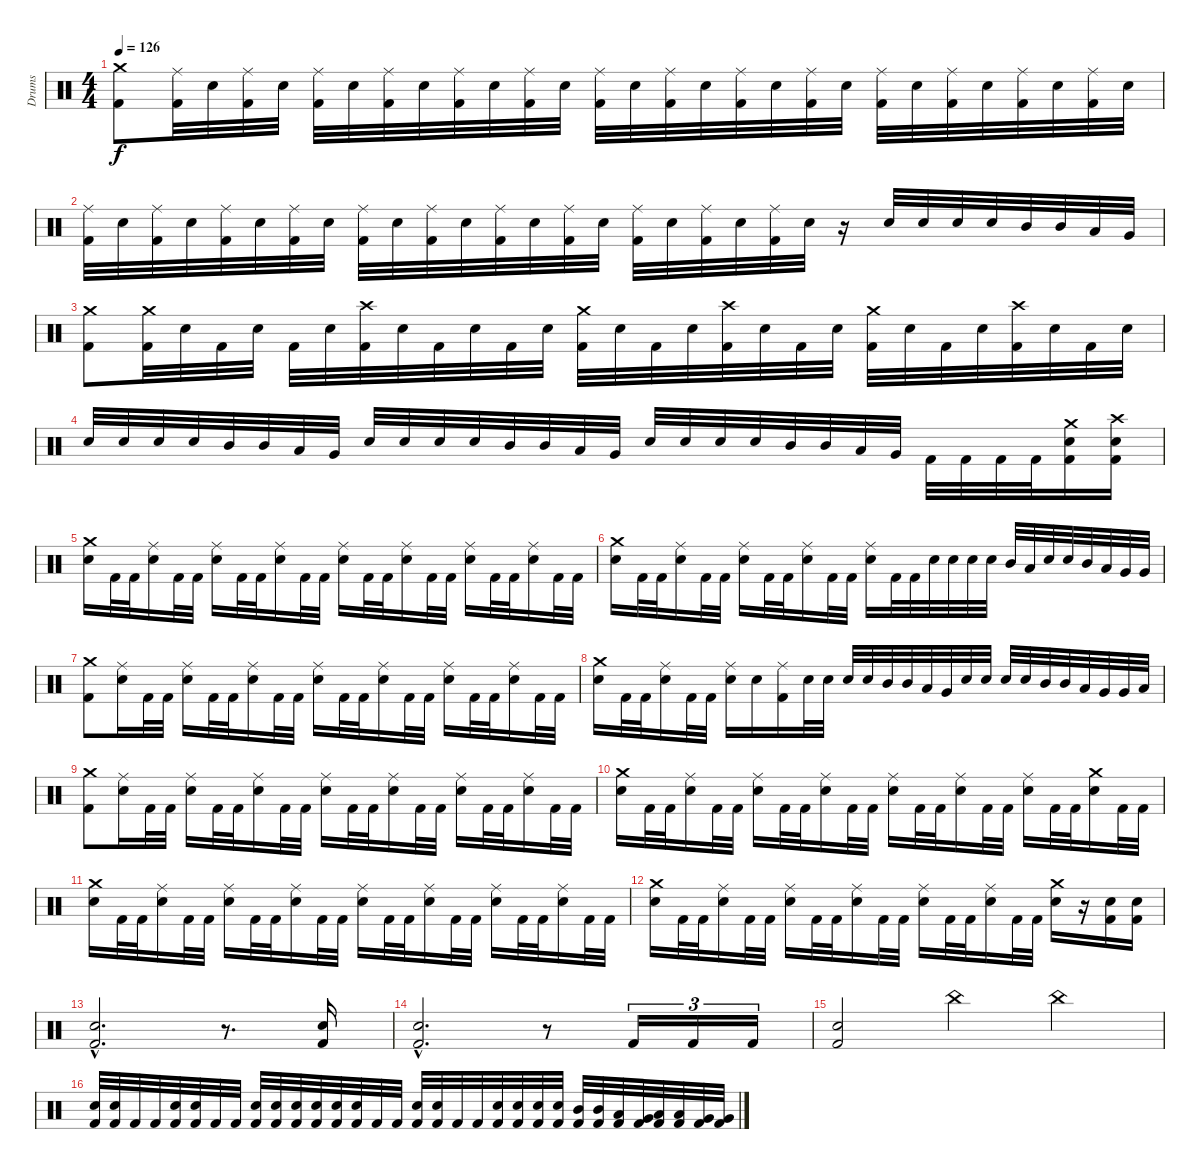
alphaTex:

\track ("Drums" "Drums") {instrument percussion}
\staff {score}
\articulation defaults
\ts (4 4)
\section ("" "")
\tempo 126
\clef neutral
\ks c
("Crash medium (hit)" "Kick (hit) 2").8{dy f} ("Ride (middle)" "Kick (hit) 2").32 "Electric Snare (hit)".32 ("Ride (middle)" "Kick (hit) 2").32 "Electric Snare (hit)".32 ("Ride (middle)" "Kick (hit) 2").32 "Electric Snare (hit)".32 ("Ride (middle)" "Kick (hit) 2").32 "Electric Snare (hit)".32 ("Ride (middle)" "Kick (hit) 2").32 "Electric Snare (hit)".32 ("Ride (middle)" "Kick (hit) 2").32 "Electric Snare (hit)".32 ("Ride (middle)" "Kick (hit) 2").32 "Electric Snare (hit)".32 ("Ride (middle)" "Kick (hit) 2").32 "Electric Snare (hit)".32 ("Ride (middle)" "Kick (hit) 2").32 "Electric Snare (hit)".32 ("Ride (middle)" "Kick (hit) 2").32 "Electric Snare (hit)".32 ("Ride (middle)" "Kick (hit) 2").32 "Electric Snare (hit)".32 ("Ride (middle)" "Kick (hit) 2").32 "Electric Snare (hit)".32 ("Ride (middle)" "Kick (hit) 2").32 "Electric Snare (hit)".32 ("Ride (middle)" "Kick (hit) 2").32 "Electric Snare (hit)".32 |
("Ride (middle)" "Kick (hit) 2").32 "Electric Snare (hit)".32 ("Ride (middle)" "Kick (hit) 2").32 "Electric Snare (hit)".32 ("Ride (middle)" "Kick (hit) 2").32 "Electric Snare (hit)".32 ("Ride (middle)" "Kick (hit) 2").32 "Electric Snare (hit)".32 ("Ride (middle)" "Kick (hit) 2").32 "Electric Snare (hit)".32 ("Ride (middle)" "Kick (hit) 2").32 "Electric Snare (hit)".32 ("Ride (middle)" "Kick (hit) 2").32 "Electric Snare (hit)".32 ("Ride (middle)" "Kick (hit) 2").32 "Electric Snare (hit)".32 ("Ride (middle)" "Kick (hit) 2").32 "Electric Snare (hit)".32 ("Ride (middle)" "Kick (hit) 2").32 "Electric Snare (hit)".32 ("Ride (middle)" "Kick (hit) 2").32 "Electric Snare (hit)".32 r.16 "Electric Snare (hit)".32 "Electric Snare (hit)".32 "Electric Snare (hit)".32 "Electric Snare (hit)".32 "Mid Tom (hit)".32 "Mid Tom (hit)".32 "Low Tom (hit)".32 "Very Low Tom (hit)".32 |
("Crash medium (hit)" "Kick (hit) 2").8 ("Crash medium (hit)" "Kick (hit) 2").32 "Electric Snare (hit)".32 "Kick (hit) 2".32 "Electric Snare (hit)".32 "Kick (hit) 2".32 "Electric Snare (hit)".32 ("Crash high (hit)" "Kick (hit) 2").32 "Electric Snare (hit)".32 "Kick (hit) 2".32 "Electric Snare (hit)".32 "Kick (hit) 2".32 "Electric Snare (hit)".32 ("Crash medium (hit)" "Kick (hit) 2").32 "Electric Snare (hit)".32 "Kick (hit) 2".32 "Electric Snare (hit)".32 ("Crash high (hit)" "Kick (hit) 2").32 "Electric Snare (hit)".32 "Kick (hit) 2".32 "Electric Snare (hit)".32 ("Crash medium (hit)" "Kick (hit) 2").32 "Electric Snare (hit)".32 "Kick (hit) 2".32 "Electric Snare (hit)".32 ("Crash high (hit)" "Kick (hit) 2").32 "Electric Snare (hit)".32 "Kick (hit) 2".32 "Electric Snare (hit)".32 |
"Electric Snare (hit)".32 "Electric Snare (hit)".32 "Electric Snare (hit)".32 "Electric Snare (hit)".32 "Mid Tom (hit)".32 "Mid Tom (hit)".32 "Low Tom (hit)".32 "Very Low Tom (hit)".32 "Electric Snare (hit)".32 "Electric Snare (hit)".32 "Electric Snare (hit)".32 "Electric Snare (hit)".32 "Mid Tom (hit)".32 "Mid Tom (hit)".32 "Low Tom (hit)".32 "Very Low Tom (hit)".32 "Electric Snare (hit)".32 "Electric Snare (hit)".32 "Electric Snare (hit)".32 "Electric Snare (hit)".32 "Mid Tom (hit)".32 "Mid Tom (hit)".32 "Low Tom (hit)".32 "Very Low Tom (hit)".32 "Kick (hit) 2".32 "Kick (hit) 2".32 "Kick (hit) 2".32 "Kick (hit) 2".32 ("Crash medium (hit)" "Electric Snare (hit)" "Kick (hit) 2").16 ("Crash high (hit)" "Electric Snare (hit)" "Kick (hit) 2").16 |
\section ("" "")
("Crash medium (hit)" "Electric Snare (hit)").16 "Kick (hit) 2".32 "Kick (hit) 2".32 ("Ride (middle)" "Electric Snare (hit)").16 "Kick (hit) 2".32 "Kick (hit) 2".32 ("Ride (middle)" "Electric Snare (hit)").16 "Kick (hit) 2".32 "Kick (hit) 2".32 ("Ride (middle)" "Electric Snare (hit)").16 "Kick (hit) 2".32 "Kick (hit) 2".32 ("Ride (middle)" "Electric Snare (hit)").16 "Kick (hit) 2".32 "Kick (hit) 2".32 ("Ride (middle)" "Electric Snare (hit)").16 "Kick (hit) 2".32 "Kick (hit) 2".32 ("Ride (middle)" "Electric Snare (hit)").16 "Kick (hit) 2".32 "Kick (hit) 2".32 ("Ride (middle)" "Electric Snare (hit)").16 "Kick (hit) 2".32 "Kick (hit) 2".32 |
("Crash medium (hit)" "Electric Snare (hit)").16 "Kick (hit) 2".32 "Kick (hit) 2".32 ("Ride (middle)" "Electric Snare (hit)").16 "Kick (hit) 2".32 "Kick (hit) 2".32 ("Ride (middle)" "Electric Snare (hit)").16 "Kick (hit) 2".32 "Kick (hit) 2".32 ("Ride (middle)" "Electric Snare (hit)").16 "Kick (hit) 2".32 "Kick (hit) 2".32 ("Ride (middle)" "Electric Snare (hit)").16 "Kick (hit) 2".32 "Kick (hit) 2".32 "Electric Snare (hit)".32 "Electric Snare (hit)".32 "Electric Snare (hit)".32 "Electric Snare (hit)".32 "Mid Tom (hit)".32 "Low Tom (hit)".32 "Electric Snare (hit)".32 "Electric Snare (hit)".32 "Mid Tom (hit)".32 "Low Tom (hit)".32 "Very Low Tom (hit)".32 "Very Low Tom (hit)".32 |
("Crash medium (hit)" "Kick (hit) 2").8 ("Ride (middle)" "Electric Snare (hit)").16 "Kick (hit) 2".32 "Kick (hit) 2".32 ("Ride (middle)" "Electric Snare (hit)").16 "Kick (hit) 2".32 "Kick (hit) 2".32 ("Ride (middle)" "Electric Snare (hit)").16 "Kick (hit) 2".32 "Kick (hit) 2".32 ("Ride (middle)" "Electric Snare (hit)").16 "Kick (hit) 2".32 "Kick (hit) 2".32 ("Ride (middle)" "Electric Snare (hit)").16 "Kick (hit) 2".32 "Kick (hit) 2".32 ("Ride (middle)" "Electric Snare (hit)").16 "Kick (hit) 2".32 "Kick (hit) 2".32 ("Ride (middle)" "Electric Snare (hit)").16 "Kick (hit) 2".32 "Kick (hit) 2".32 |
("Crash medium (hit)" "Electric Snare (hit)").16 "Kick (hit) 2".32 "Kick (hit) 2".32 ("Ride (middle)" "Electric Snare (hit)").16 "Kick (hit) 2".32 "Kick (hit) 2".32 ("Ride (middle)" "Electric Snare (hit)").16 "Electric Snare (hit)".16 ("Ride (middle)" "Kick (hit) 2").16 "Electric Snare (hit)".32 "Electric Snare (hit)".32 "Electric Snare (hit)".32 "Electric Snare (hit)".32 "Mid Tom (hit)".32 "Mid Tom (hit)".32 "Low Tom (hit)".32 "Very Low Tom (hit)".32 "Electric Snare (hit)".32 "Electric Snare (hit)".32 "Electric Snare (hit)".32 "Electric Snare (hit)".32 "Mid Tom (hit)".32 "Mid Tom (hit)".32 "Low Tom (hit)".32 "Very Low Tom (hit)".32 "Very Low Tom (hit)".32 "Low Floor Tom (hit)".32 |
("Crash medium (hit)" "Kick (hit) 2").8 ("Ride (middle)" "Electric Snare (hit)").16 "Kick (hit) 2".32 "Kick (hit) 2".32 ("Ride (middle)" "Electric Snare (hit)").16 "Kick (hit) 2".32 "Kick (hit) 2".32 ("Ride (middle)" "Electric Snare (hit)").16 "Kick (hit) 2".32 "Kick (hit) 2".32 ("Ride (middle)" "Electric Snare (hit)").16 "Kick (hit) 2".32 "Kick (hit) 2".32 ("Ride (middle)" "Electric Snare (hit)").16 "Kick (hit) 2".32 "Kick (hit) 2".32 ("Ride (middle)" "Electric Snare (hit)").16 "Kick (hit) 2".32 "Kick (hit) 2".32 ("Ride (middle)" "Electric Snare (hit)").16 "Kick (hit) 2".32 "Kick (hit) 2".32 |
("Crash medium (hit)" "Electric Snare (hit)").16 "Kick (hit) 2".32 "Kick (hit) 2".32 ("Ride (middle)" "Electric Snare (hit)").16 "Kick (hit) 2".32 "Kick (hit) 2".32 ("Ride (middle)" "Electric Snare (hit)").16 "Kick (hit) 2".32 "Kick (hit) 2".32 ("Ride (middle)" "Electric Snare (hit)").16 "Kick (hit) 2".32 "Kick (hit) 2".32 ("Ride (middle)" "Electric Snare (hit)").16 "Kick (hit) 2".32 "Kick (hit) 2".32 ("Ride (middle)" "Electric Snare (hit)").16 "Kick (hit) 2".32 "Kick (hit) 2".32 ("Ride (middle)" "Electric Snare (hit)").16 "Kick (hit) 2".32 "Kick (hit) 2".32 ("Crash medium (hit)" "Electric Snare (hit)").16 "Kick (hit) 2".32 "Kick (hit) 2".32 |
("Crash medium (hit)" "Electric Snare (hit)").16 "Kick (hit) 2".32 "Kick (hit) 2".32 ("Ride (middle)" "Electric Snare (hit)").16 "Kick (hit) 2".32 "Kick (hit) 2".32 ("Ride (middle)" "Electric Snare (hit)").16 "Kick (hit) 2".32 "Kick (hit) 2".32 ("Ride (middle)" "Electric Snare (hit)").16 "Kick (hit) 2".32 "Kick (hit) 2".32 ("Ride (middle)" "Electric Snare (hit)").16 "Kick (hit) 2".32 "Kick (hit) 2".32 ("Ride (middle)" "Electric Snare (hit)").16 "Kick (hit) 2".32 "Kick (hit) 2".32 ("Ride (middle)" "Electric Snare (hit)").16 "Kick (hit) 2".32 "Kick (hit) 2".32 ("Ride (middle)" "Electric Snare (hit)").16 "Kick (hit) 2".32 "Kick (hit) 2".32 |
("Crash medium (hit)" "Electric Snare (hit)").16 "Kick (hit) 2".32 "Kick (hit) 2".32 ("Ride (middle)" "Electric Snare (hit)").16 "Kick (hit) 2".32 "Kick (hit) 2".32 ("Ride (middle)" "Electric Snare (hit)").16 "Kick (hit) 2".32 "Kick (hit) 2".32 ("Ride (middle)" "Electric Snare (hit)").16 "Kick (hit) 2".32 "Kick (hit) 2".32 ("Ride (middle)" "Electric Snare (hit)").16 "Kick (hit) 2".32 "Kick (hit) 2".32 ("Ride (middle)" "Electric Snare (hit)").16 "Kick (hit) 2".32 "Kick (hit) 2".32 ("Crash medium (hit)" "Electric Snare (hit)").16 r.16 ("Electric Snare (hit)" "Kick (hit) 2").16 ("Electric Snare (hit)" "Kick (hit) 2").16 |
\section ("" "")
("Electric Snare (hit)"{hac} "Kick (hit) 2"{hac}).2{d} r.8{d} ("Electric Snare (hit)" "Kick (hit) 2").16 |
("Electric Snare (hit)"{hac} "Kick (hit) 2"{hac}).2{d} r.8 "Kick (hit) 2".16{tu (3 2)} "Kick (hit) 2".16{tu (3 2)} "Kick (hit) 2".16{tu (3 2)} |
("Electric Snare (hit)" "Kick (hit) 2").2 "China (hit)".4 "China (hit)".4 |
("Electric Snare (hit)" "Kick (hit) 2").32 ("Electric Snare (hit)" "Kick (hit) 2").32 "Kick (hit) 2".32 "Kick (hit) 2".32 ("Electric Snare (hit)" "Kick (hit) 2").32 ("Electric Snare (hit)" "Kick (hit) 2").32 "Kick (hit) 2".32 "Kick (hit) 2".32 ("Electric Snare (hit)" "Kick (hit) 2").32 ("Electric Snare (hit)" "Kick (hit) 2").32 ("Electric Snare (hit)" "Kick (hit) 2").32 ("Electric Snare (hit)" "Kick (hit) 2").32 ("Electric Snare (hit)" "Kick (hit) 2").32 ("Electric Snare (hit)" "Kick (hit) 2").32 "Kick (hit) 2".32 "Kick (hit) 2".32 ("Electric Snare (hit)" "Kick (hit) 2").32 ("Electric Snare (hit)" "Kick (hit) 2").32 "Kick (hit) 2".32 "Kick (hit) 2".32 ("Electric Snare (hit)" "Kick (hit) 2").32 ("Electric Snare (hit)" "Kick (hit) 2").32 ("Electric Snare (hit)" "Kick (hit) 2").32 ("Electric Snare (hit)" "Kick (hit) 2").32 ("Mid Tom (hit)" "Kick (hit) 2").32 ("Mid Tom (hit)" "Kick (hit) 2").32 ("Low Tom (hit)" "Kick (hit) 2").32 ("Very Low Tom (hit)" "Kick (hit) 2").32 ("Low Tom (hit)" "Kick (hit) 2").32 ("Low Tom (hit)" "Kick (hit) 2").32 ("Very Low Tom (hit)" "Kick (hit) 2").32 ("Very Low Tom (hit)" "Kick (hit) 2").32
